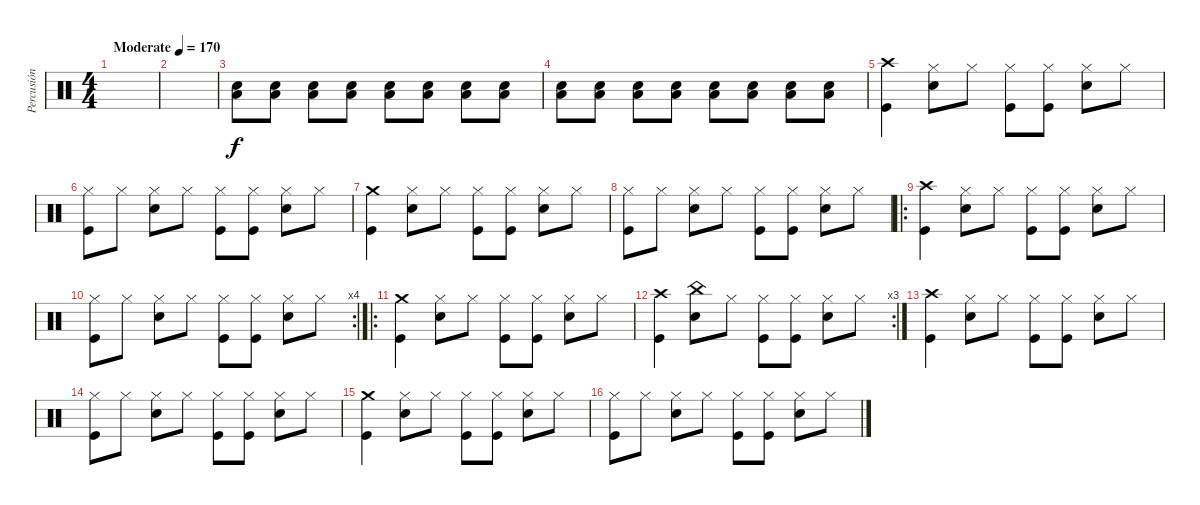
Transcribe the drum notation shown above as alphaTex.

\track ("Percusión" "Percusión") {instrument percussion}
\staff {score}
\articulation defaults
\ts (4 4)
\tempo (170 "Moderate")
\clef neutral
\ks c
|
|
("Low Tom (hit)" "Electric Snare (hit)").8 ("Low Tom (hit)" "Electric Snare (hit)").8 ("Low Tom (hit)" "Electric Snare (hit)").8 ("Low Tom (hit)" "Electric Snare (hit)").8 ("Low Tom (hit)" "Electric Snare (hit)").8 ("Low Tom (hit)" "Electric Snare (hit)").8 ("Low Tom (hit)" "Electric Snare (hit)").8 ("Low Tom (hit)" "Electric Snare (hit)").8 |
("Low Tom (hit)" "Electric Snare (hit)").8 ("Low Tom (hit)" "Electric Snare (hit)").8 ("Low Tom (hit)" "Electric Snare (hit)").8 ("Low Tom (hit)" "Electric Snare (hit)").8 ("Low Tom (hit)" "Electric Snare (hit)").8 ("Low Tom (hit)" "Electric Snare (hit)").8 ("Low Tom (hit)" "Electric Snare (hit)").8 ("Low Tom (hit)" "Electric Snare (hit)").8 |
("Kick (hit)" "Crash high (hit)").4 ("Snare (hit) 2" "Hi-Hat (closed)").8 "Hi-Hat (closed)".8 ("Hi-Hat (closed)" "Kick (hit)").8 ("Kick (hit)" "Hi-Hat (closed)").8 ("Snare (hit) 2" "Hi-Hat (closed)").8 "Hi-Hat (closed)".8 |
("Kick (hit)" "Hi-Hat (closed)").8 "Hi-Hat (closed)".8 ("Snare (hit) 2" "Hi-Hat (closed)").8 "Hi-Hat (closed)".8 ("Hi-Hat (closed)" "Kick (hit)").8 ("Kick (hit)" "Hi-Hat (closed)").8 ("Snare (hit) 2" "Hi-Hat (closed)").8 "Hi-Hat (closed)".8 |
("Kick (hit)" "Crash medium (hit)").4 ("Snare (hit) 2" "Hi-Hat (closed)").8 "Hi-Hat (closed)".8 ("Hi-Hat (closed)" "Kick (hit)").8 ("Kick (hit)" "Hi-Hat (closed)").8 ("Snare (hit) 2" "Hi-Hat (closed)").8 "Hi-Hat (closed)".8 |
("Kick (hit)" "Hi-Hat (closed)").8 "Hi-Hat (closed)".8 ("Snare (hit) 2" "Hi-Hat (closed)").8 "Hi-Hat (closed)".8 ("Hi-Hat (closed)" "Kick (hit)").8 ("Kick (hit)" "Hi-Hat (closed)").8 ("Snare (hit) 2" "Hi-Hat (closed)").8 "Hi-Hat (closed)".8 |
\ro
("Kick (hit)" "Crash high (hit)").4 ("Snare (hit) 2" "Hi-Hat (closed)").8 "Hi-Hat (closed)".8 ("Hi-Hat (closed)" "Kick (hit)").8 ("Kick (hit)" "Hi-Hat (closed)").8 ("Snare (hit) 2" "Hi-Hat (closed)").8 "Hi-Hat (closed)".8 |
\rc 4
("Kick (hit)" "Hi-Hat (closed)").8 "Hi-Hat (closed)".8 ("Snare (hit) 2" "Hi-Hat (closed)").8 "Hi-Hat (closed)".8 ("Hi-Hat (closed)" "Kick (hit)").8 ("Kick (hit)" "Hi-Hat (closed)").8 ("Snare (hit) 2" "Hi-Hat (closed)").8 "Hi-Hat (closed)".8 |
\ro
("Kick (hit)" "Crash medium (hit)").4 ("Snare (hit) 2" "Hi-Hat (closed)").8 "Hi-Hat (closed)".8 ("Hi-Hat (closed)" "Kick (hit)").8 ("Kick (hit)" "Hi-Hat (closed)").8 ("Snare (hit) 2" "Hi-Hat (closed)").8 "Hi-Hat (closed)".8 |
\rc 3
("Kick (hit)" "Crash high (hit)").4 ("Snare (hit) 2" "China (hit)").8 "Hi-Hat (closed)".8 ("Hi-Hat (closed)" "Kick (hit)").8 ("Kick (hit)" "Hi-Hat (closed)").8 ("Snare (hit) 2" "Hi-Hat (closed)").8 "Hi-Hat (closed)".8 |
("Kick (hit)" "Crash high (hit)").4 ("Snare (hit) 2" "Hi-Hat (closed)").8 "Hi-Hat (closed)".8 ("Hi-Hat (closed)" "Kick (hit)").8 ("Kick (hit)" "Hi-Hat (closed)").8 ("Snare (hit) 2" "Hi-Hat (closed)").8 "Hi-Hat (closed)".8 |
("Kick (hit)" "Hi-Hat (closed)").8 "Hi-Hat (closed)".8 ("Snare (hit) 2" "Hi-Hat (closed)").8 "Hi-Hat (closed)".8 ("Hi-Hat (closed)" "Kick (hit)").8 ("Kick (hit)" "Hi-Hat (closed)").8 ("Snare (hit) 2" "Hi-Hat (closed)").8 "Hi-Hat (closed)".8 |
("Kick (hit)" "Crash medium (hit)").4 ("Snare (hit) 2" "Hi-Hat (closed)").8 "Hi-Hat (closed)".8 ("Hi-Hat (closed)" "Kick (hit)").8 ("Kick (hit)" "Hi-Hat (closed)").8 ("Snare (hit) 2" "Hi-Hat (closed)").8 "Hi-Hat (closed)".8 |
("Kick (hit)" "Hi-Hat (closed)").8 "Hi-Hat (closed)".8 ("Snare (hit) 2" "Hi-Hat (closed)").8 "Hi-Hat (closed)".8 ("Hi-Hat (closed)" "Kick (hit)").8 ("Kick (hit)" "Hi-Hat (closed)").8 ("Snare (hit) 2" "Hi-Hat (closed)").8 "Hi-Hat (closed)".8
